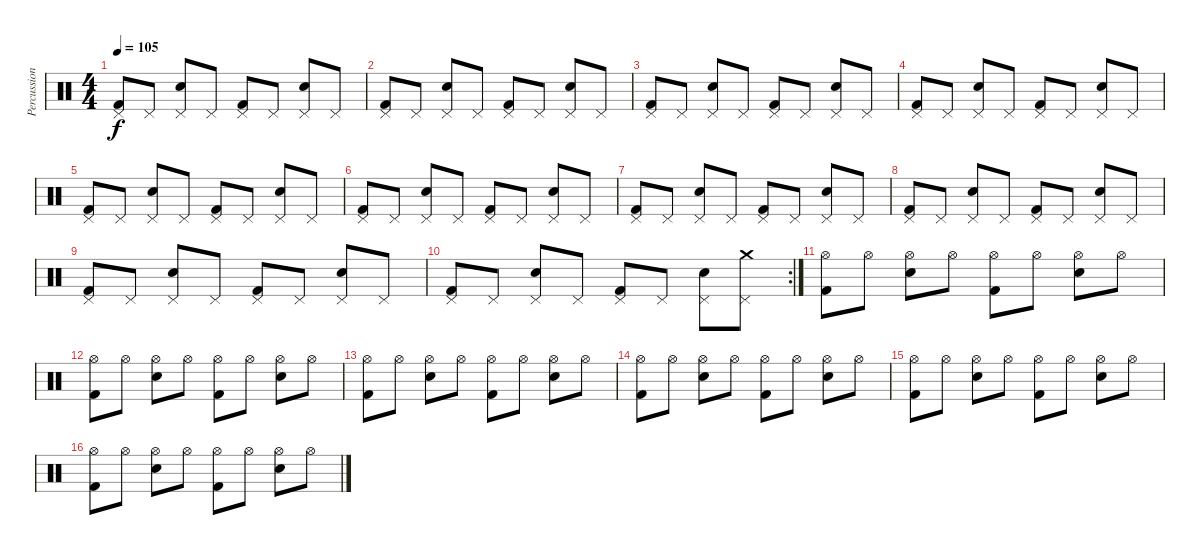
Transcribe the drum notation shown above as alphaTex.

\track ("Percussion" "Percussion") {instrument percussion}
\staff {score}
\articulation defaults
\ts (4 4)
\tempo 105
\clef neutral
\ks c
("Pedal Hi-Hat (hit)" "Kick (hit) 2").8{dy f} "Pedal Hi-Hat (hit)".8 ("Pedal Hi-Hat (hit)" "Snare (hit) 2").8 "Pedal Hi-Hat (hit)".8 ("Pedal Hi-Hat (hit)" "Kick (hit) 2").8 "Pedal Hi-Hat (hit)".8 ("Pedal Hi-Hat (hit)" "Snare (hit) 2").8 "Pedal Hi-Hat (hit)".8 |
("Pedal Hi-Hat (hit)" "Kick (hit) 2").8 "Pedal Hi-Hat (hit)".8 ("Pedal Hi-Hat (hit)" "Snare (hit) 2").8 "Pedal Hi-Hat (hit)".8 ("Pedal Hi-Hat (hit)" "Kick (hit) 2").8 "Pedal Hi-Hat (hit)".8 ("Pedal Hi-Hat (hit)" "Snare (hit) 2").8 "Pedal Hi-Hat (hit)".8 |
("Pedal Hi-Hat (hit)" "Kick (hit) 2").8 "Pedal Hi-Hat (hit)".8 ("Pedal Hi-Hat (hit)" "Snare (hit) 2").8 "Pedal Hi-Hat (hit)".8 ("Pedal Hi-Hat (hit)" "Kick (hit) 2").8 "Pedal Hi-Hat (hit)".8 ("Pedal Hi-Hat (hit)" "Snare (hit) 2").8 "Pedal Hi-Hat (hit)".8 |
("Pedal Hi-Hat (hit)" "Kick (hit) 2").8 "Pedal Hi-Hat (hit)".8 ("Pedal Hi-Hat (hit)" "Snare (hit) 2").8 "Pedal Hi-Hat (hit)".8 ("Pedal Hi-Hat (hit)" "Kick (hit) 2").8 "Pedal Hi-Hat (hit)".8 ("Pedal Hi-Hat (hit)" "Snare (hit) 2").8 "Pedal Hi-Hat (hit)".8 |
("Pedal Hi-Hat (hit)" "Kick (hit) 2").8 "Pedal Hi-Hat (hit)".8 ("Pedal Hi-Hat (hit)" "Snare (hit) 2").8 "Pedal Hi-Hat (hit)".8 ("Pedal Hi-Hat (hit)" "Kick (hit) 2").8 "Pedal Hi-Hat (hit)".8 ("Pedal Hi-Hat (hit)" "Snare (hit) 2").8 "Pedal Hi-Hat (hit)".8 |
("Pedal Hi-Hat (hit)" "Kick (hit) 2").8 "Pedal Hi-Hat (hit)".8 ("Pedal Hi-Hat (hit)" "Snare (hit) 2").8 "Pedal Hi-Hat (hit)".8 ("Pedal Hi-Hat (hit)" "Kick (hit) 2").8 "Pedal Hi-Hat (hit)".8 ("Pedal Hi-Hat (hit)" "Snare (hit) 2").8 "Pedal Hi-Hat (hit)".8 |
("Pedal Hi-Hat (hit)" "Kick (hit) 2").8 "Pedal Hi-Hat (hit)".8 ("Pedal Hi-Hat (hit)" "Snare (hit) 2").8 "Pedal Hi-Hat (hit)".8 ("Pedal Hi-Hat (hit)" "Kick (hit) 2").8 "Pedal Hi-Hat (hit)".8 ("Pedal Hi-Hat (hit)" "Snare (hit) 2").8 "Pedal Hi-Hat (hit)".8 |
("Pedal Hi-Hat (hit)" "Kick (hit) 2").8 "Pedal Hi-Hat (hit)".8 ("Pedal Hi-Hat (hit)" "Snare (hit) 2").8 "Pedal Hi-Hat (hit)".8 ("Pedal Hi-Hat (hit)" "Kick (hit) 2").8 "Pedal Hi-Hat (hit)".8 ("Pedal Hi-Hat (hit)" "Snare (hit) 2").8 "Pedal Hi-Hat (hit)".8 |
("Pedal Hi-Hat (hit)" "Kick (hit) 2").8 "Pedal Hi-Hat (hit)".8 ("Pedal Hi-Hat (hit)" "Snare (hit) 2").8 "Pedal Hi-Hat (hit)".8 ("Pedal Hi-Hat (hit)" "Kick (hit) 2").8 "Pedal Hi-Hat (hit)".8 ("Pedal Hi-Hat (hit)" "Snare (hit) 2").8 "Pedal Hi-Hat (hit)".8 |
\rc 2
("Pedal Hi-Hat (hit)" "Kick (hit) 2").8 "Pedal Hi-Hat (hit)".8 ("Pedal Hi-Hat (hit)" "Snare (hit) 2").8 "Pedal Hi-Hat (hit)".8 ("Pedal Hi-Hat (hit)" "Kick (hit) 2").8 "Pedal Hi-Hat (hit)".8 ("Pedal Hi-Hat (hit)" "Snare (hit) 2").8 ("Pedal Hi-Hat (hit)" "Crash medium (hit)").8 |
("Hi-Hat (open)" "Kick (hit) 2").8 "Hi-Hat (open)".8 ("Hi-Hat (open)" "Snare (hit) 2").8 "Hi-Hat (open)".8 ("Hi-Hat (open)" "Kick (hit) 2").8 "Hi-Hat (open)".8 ("Hi-Hat (open)" "Snare (hit) 2").8 "Hi-Hat (open)".8 |
("Hi-Hat (open)" "Kick (hit) 2").8 "Hi-Hat (open)".8 ("Hi-Hat (open)" "Snare (hit) 2").8 "Hi-Hat (open)".8 ("Hi-Hat (open)" "Kick (hit) 2").8 "Hi-Hat (open)".8 ("Hi-Hat (open)" "Snare (hit) 2").8 "Hi-Hat (open)".8 |
("Hi-Hat (open)" "Kick (hit) 2").8 "Hi-Hat (open)".8 ("Hi-Hat (open)" "Snare (hit) 2").8 "Hi-Hat (open)".8 ("Hi-Hat (open)" "Kick (hit) 2").8 "Hi-Hat (open)".8 ("Hi-Hat (open)" "Snare (hit) 2").8 "Hi-Hat (open)".8 |
("Hi-Hat (open)" "Kick (hit) 2").8 "Hi-Hat (open)".8 ("Hi-Hat (open)" "Snare (hit) 2").8 "Hi-Hat (open)".8 ("Hi-Hat (open)" "Kick (hit) 2").8 "Hi-Hat (open)".8 ("Hi-Hat (open)" "Snare (hit) 2").8 "Hi-Hat (open)".8 |
("Hi-Hat (open)" "Kick (hit) 2").8 "Hi-Hat (open)".8 ("Hi-Hat (open)" "Snare (hit) 2").8 "Hi-Hat (open)".8 ("Hi-Hat (open)" "Kick (hit) 2").8 "Hi-Hat (open)".8 ("Hi-Hat (open)" "Snare (hit) 2").8 "Hi-Hat (open)".8 |
("Hi-Hat (open)" "Kick (hit) 2").8 "Hi-Hat (open)".8 ("Hi-Hat (open)" "Snare (hit) 2").8 "Hi-Hat (open)".8 ("Hi-Hat (open)" "Kick (hit) 2").8 "Hi-Hat (open)".8 ("Hi-Hat (open)" "Snare (hit) 2").8 "Hi-Hat (open)".8
